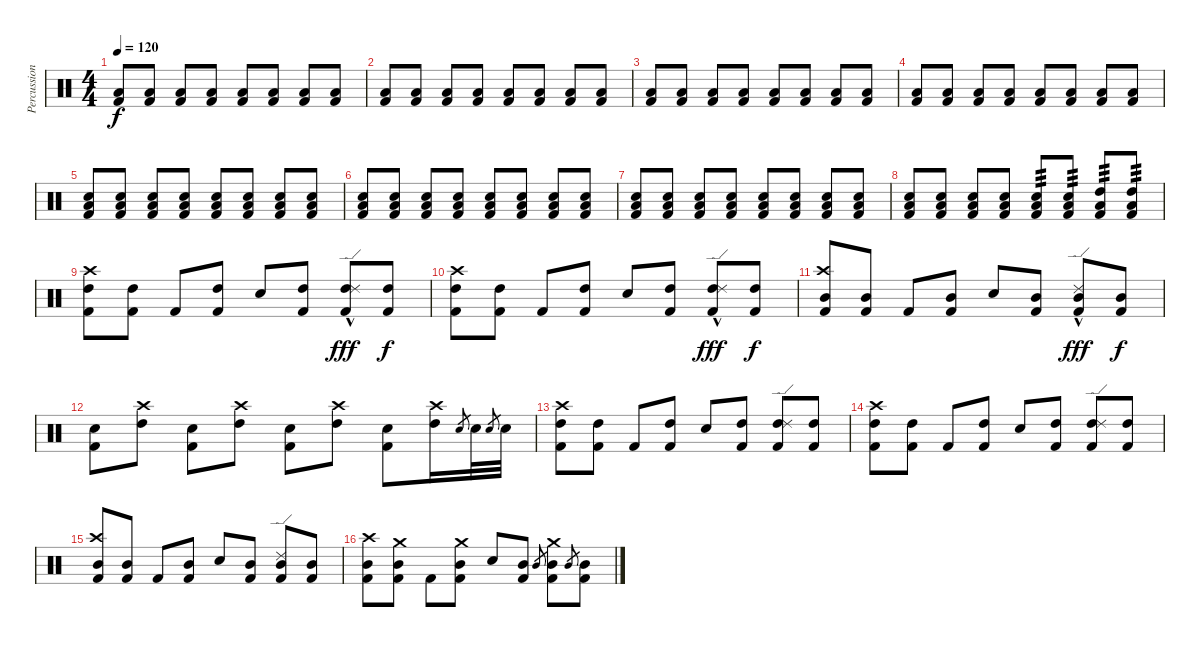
\track ("Percussion" "Percussion") {instrument percussion}
\staff {score}
\articulation defaults
\ts (4 4)
\tempo 120
\clef neutral
\ks c
("Kick (hit) 2" "Low Floor Tom (hit)").8{dy f} ("Kick (hit) 2" "Low Floor Tom (hit)").8 ("Kick (hit) 2" "Low Floor Tom (hit)").8 ("Kick (hit) 2" "Low Floor Tom (hit)").8 ("Kick (hit) 2" "Low Floor Tom (hit)").8 ("Kick (hit) 2" "Low Floor Tom (hit)").8 ("Kick (hit) 2" "Low Floor Tom (hit)").8 ("Kick (hit) 2" "Low Floor Tom (hit)").8 |
("Kick (hit) 2" "Low Floor Tom (hit)").8 ("Kick (hit) 2" "Low Floor Tom (hit)").8 ("Kick (hit) 2" "Low Floor Tom (hit)").8 ("Kick (hit) 2" "Low Floor Tom (hit)").8 ("Kick (hit) 2" "Low Floor Tom (hit)").8 ("Kick (hit) 2" "Low Floor Tom (hit)").8 ("Kick (hit) 2" "Low Floor Tom (hit)").8 ("Kick (hit) 2" "Low Floor Tom (hit)").8 |
("Kick (hit) 2" "Low Floor Tom (hit)").8 ("Kick (hit) 2" "Low Floor Tom (hit)").8 ("Kick (hit) 2" "Low Floor Tom (hit)").8 ("Kick (hit) 2" "Low Floor Tom (hit)").8 ("Kick (hit) 2" "Low Floor Tom (hit)").8 ("Kick (hit) 2" "Low Floor Tom (hit)").8 ("Kick (hit) 2" "Low Floor Tom (hit)").8 ("Kick (hit) 2" "Low Floor Tom (hit)").8 |
("Kick (hit) 2" "Low Floor Tom (hit)").8 ("Kick (hit) 2" "Low Floor Tom (hit)").8 ("Kick (hit) 2" "Low Floor Tom (hit)").8 ("Kick (hit) 2" "Low Floor Tom (hit)").8 ("Kick (hit) 2" "Low Floor Tom (hit)").8 ("Kick (hit) 2" "Low Floor Tom (hit)").8 ("Kick (hit) 2" "Low Floor Tom (hit)").8 ("Kick (hit) 2" "Low Floor Tom (hit)").8 |
("Kick (hit) 2" "Low Floor Tom (hit)" "Snare (hit) 2").8 ("Kick (hit) 2" "Low Floor Tom (hit)" "Snare (hit) 2").8 ("Kick (hit) 2" "Low Floor Tom (hit)" "Snare (hit) 2").8 ("Kick (hit) 2" "Low Floor Tom (hit)" "Snare (hit) 2").8 ("Kick (hit) 2" "Low Floor Tom (hit)" "Snare (hit) 2").8 ("Kick (hit) 2" "Low Floor Tom (hit)" "Snare (hit) 2").8 ("Kick (hit) 2" "Low Floor Tom (hit)" "Snare (hit) 2").8 ("Kick (hit) 2" "Low Floor Tom (hit)" "Snare (hit) 2").8 |
("Kick (hit) 2" "Low Floor Tom (hit)" "Snare (hit) 2").8 ("Kick (hit) 2" "Low Floor Tom (hit)" "Snare (hit) 2").8 ("Kick (hit) 2" "Low Floor Tom (hit)" "Snare (hit) 2").8 ("Kick (hit) 2" "Low Floor Tom (hit)" "Snare (hit) 2").8 ("Kick (hit) 2" "Low Floor Tom (hit)" "Snare (hit) 2").8 ("Kick (hit) 2" "Low Floor Tom (hit)" "Snare (hit) 2").8 ("Kick (hit) 2" "Low Floor Tom (hit)" "Snare (hit) 2").8 ("Kick (hit) 2" "Low Floor Tom (hit)" "Snare (hit) 2").8 |
("Kick (hit) 2" "Low Floor Tom (hit)" "Snare (hit) 2").8 ("Kick (hit) 2" "Low Floor Tom (hit)" "Snare (hit) 2").8 ("Kick (hit) 2" "Low Floor Tom (hit)" "Snare (hit) 2").8 ("Kick (hit) 2" "Low Floor Tom (hit)" "Snare (hit) 2").8 ("Kick (hit) 2" "Low Floor Tom (hit)" "Snare (hit) 2").8 ("Kick (hit) 2" "Low Floor Tom (hit)" "Snare (hit) 2").8 ("Kick (hit) 2" "Low Floor Tom (hit)" "Snare (hit) 2").8 ("Kick (hit) 2" "Low Floor Tom (hit)" "Snare (hit) 2").8 |
("Kick (hit) 2" "Low Floor Tom (hit)" "Snare (hit) 2").8 ("Kick (hit) 2" "Low Floor Tom (hit)" "Snare (hit) 2").8 ("Kick (hit) 2" "Low Floor Tom (hit)" "Snare (hit) 2").8 ("Kick (hit) 2" "Low Floor Tom (hit)" "Snare (hit) 2").8 ("Kick (hit) 2" "Low Floor Tom (hit)" "Snare (hit) 2").8{tp 3} ("Kick (hit) 2" "Low Floor Tom (hit)" "Snare (hit) 2").8{tp 3} ("Kick (hit) 2" "Low Floor Tom (hit)" "High Tom (hit)").8{tp 3} ("Kick (hit) 2" "Low Floor Tom (hit)" "High Tom (hit)").8{tp 3} |
("Kick (hit) 2" "High Tom (hit)" "Crash high (hit)").8 ("Kick (hit) 2" "High Tom (hit)").8 "Kick (hit) 2".8 ("Kick (hit) 2" "High Tom (hit)").8 "Electric Snare (hit)".8 ("Kick (hit) 2" "High Tom (hit)").8 ("Kick (hit) 2" "High Tom (hit)" "Ride (edge) 2"{hac}).8{dy fff} ("Kick (hit) 2" "High Tom (hit)").8{dy f} |
("Kick (hit) 2" "High Tom (hit)" "Crash high (hit)").8 ("Kick (hit) 2" "High Tom (hit)").8 "Kick (hit) 2".8 ("Kick (hit) 2" "High Tom (hit)").8 "Electric Snare (hit)".8 ("Kick (hit) 2" "High Tom (hit)").8 ("Kick (hit) 2" "High Tom (hit)" "Ride (edge) 2"{hac}).8{dy fff} ("Kick (hit) 2" "High Tom (hit)").8{dy f} |
("Kick (hit) 2" "Mid Tom (hit)" "Crash high (hit)").8 ("Kick (hit) 2" "Mid Tom (hit)").8 "Kick (hit) 2".8 ("Kick (hit) 2" "Mid Tom (hit)").8 "Electric Snare (hit)".8 ("Kick (hit) 2" "Mid Tom (hit)").8 ("Kick (hit) 2" "Mid Tom (hit)" "Ride (edge) 2"{hac}).8{dy fff} ("Kick (hit) 2" "Mid Tom (hit)").8{dy f} |
("Kick (hit) 2" "Electric Snare (hit)").8 ("High Tom (hit)" "Crash high (hit)").8 ("Kick (hit) 2" "Electric Snare (hit)").8 ("High Tom (hit)" "Crash high (hit)").8 ("Kick (hit) 2" "Electric Snare (hit)").8 ("High Tom (hit)" "Crash high (hit)").8 ("Kick (hit) 2" "Electric Snare (hit)").8 ("High Tom (hit)" "Crash high (hit)").16 "Electric Snare (hit)".8{gr} "Electric Snare (hit)".32 "Electric Snare (hit)".8{gr} "Electric Snare (hit)".32 |
("Kick (hit) 2" "High Tom (hit)" "Crash high (hit)").8 ("Kick (hit) 2" "High Tom (hit)").8 "Kick (hit) 2".8 ("Kick (hit) 2" "High Tom (hit)").8 "Electric Snare (hit)".8 ("Kick (hit) 2" "High Tom (hit)").8 ("Kick (hit) 2" "High Tom (hit)" "Ride (edge) 2").8 ("Kick (hit) 2" "High Tom (hit)").8 |
("Kick (hit) 2" "High Tom (hit)" "Crash high (hit)").8 ("Kick (hit) 2" "High Tom (hit)").8 "Kick (hit) 2".8 ("Kick (hit) 2" "High Tom (hit)").8 "Electric Snare (hit)".8 ("Kick (hit) 2" "High Tom (hit)").8 ("Kick (hit) 2" "High Tom (hit)" "Ride (edge) 2").8 ("Kick (hit) 2" "High Tom (hit)").8 |
("Kick (hit) 2" "Mid Tom (hit)" "Crash high (hit)").8 ("Kick (hit) 2" "Mid Tom (hit)").8 "Kick (hit) 2".8 ("Kick (hit) 2" "Mid Tom (hit)").8 "Electric Snare (hit)".8 ("Kick (hit) 2" "Mid Tom (hit)").8 ("Kick (hit) 2" "Mid Tom (hit)" "Ride (edge) 2").8 ("Kick (hit) 2" "Mid Tom (hit)").8 |
("Kick (hit) 2" "Mid Tom (hit)" "Crash high (hit)").8 ("Kick (hit) 2" "Mid Tom (hit)" "Crash medium (hit)").8 "Kick (hit) 2".8 ("Kick (hit) 2" "Mid Tom (hit)" "Crash medium (hit)").8 "Electric Snare (hit)".8 ("Kick (hit) 2" "Mid Tom (hit)").8 "Mid Tom (hit)".8{gr} ("Kick (hit) 2" "Mid Tom (hit)" "Crash medium (hit)").8 "Mid Tom (hit)".8{gr} ("Kick (hit) 2" "Mid Tom (hit)").8
